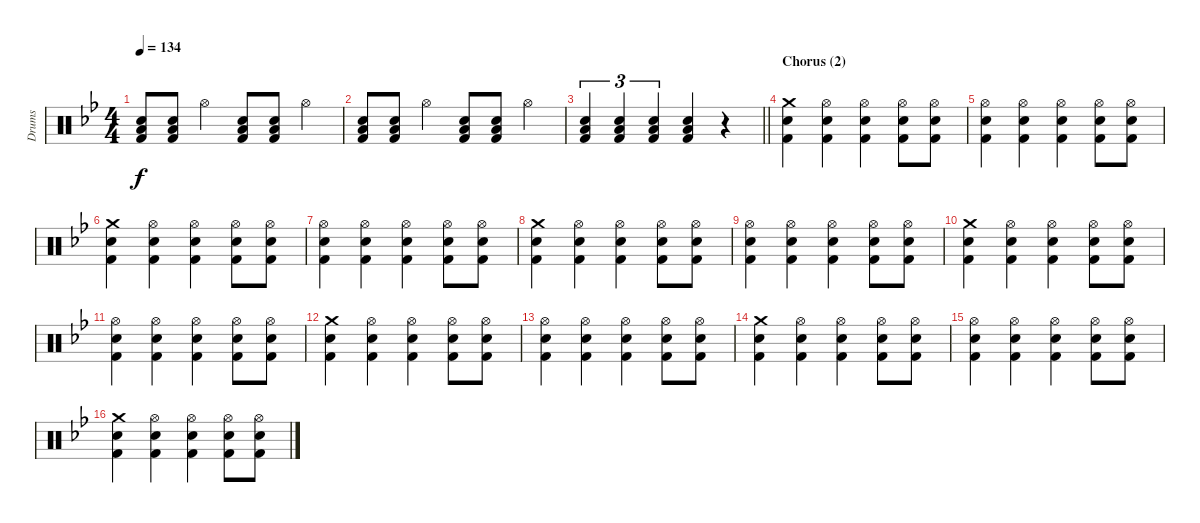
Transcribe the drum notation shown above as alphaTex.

\track ("Drums" "Drums") {instrument percussion}
\staff {score}
\articulation defaults
\ts (4 4)
\tempo 134
\clef neutral
\ks gminor
("Electric Snare (hit)" "Low Floor Tom (hit)" "Kick (hit) 2").8{dy f} ("Electric Snare (hit)" "Low Floor Tom (hit)" "Kick (hit) 2").8 "Hi-Hat (open)".4 ("Electric Snare (hit)" "Low Floor Tom (hit)" "Kick (hit) 2").8 ("Electric Snare (hit)" "Low Floor Tom (hit)" "Kick (hit) 2").8 "Hi-Hat (open)".4 |
("Electric Snare (hit)" "Low Floor Tom (hit)" "Kick (hit) 2").8 ("Electric Snare (hit)" "Low Floor Tom (hit)" "Kick (hit) 2").8 "Hi-Hat (open)".4 ("Electric Snare (hit)" "Low Floor Tom (hit)" "Kick (hit) 2").8 ("Electric Snare (hit)" "Low Floor Tom (hit)" "Kick (hit) 2").8 "Hi-Hat (open)".4 |
\barLineRight lightlight
("Electric Snare (hit)" "Low Floor Tom (hit)" "Kick (hit) 2").4{tu (3 2)} ("Electric Snare (hit)" "Low Floor Tom (hit)" "Kick (hit) 2").4{tu (3 2)} ("Electric Snare (hit)" "Low Floor Tom (hit)" "Kick (hit) 2").4{tu (3 2)} ("Electric Snare (hit)" "Low Floor Tom (hit)" "Kick (hit) 2").4 r.4 |
\section ("" "Chorus (2)")
("Crash medium (hit)" "Electric Snare (hit)" "Kick (hit) 2").4 ("Hi-Hat (open)" "Electric Snare (hit)" "Kick (hit) 2").4 ("Hi-Hat (open)" "Electric Snare (hit)" "Kick (hit) 2").4 ("Hi-Hat (open)" "Electric Snare (hit)" "Kick (hit) 2").8 ("Hi-Hat (open)" "Electric Snare (hit)" "Kick (hit) 2").8 |
("Hi-Hat (open)" "Electric Snare (hit)" "Kick (hit) 2").4 ("Hi-Hat (open)" "Electric Snare (hit)" "Kick (hit) 2").4 ("Hi-Hat (open)" "Electric Snare (hit)" "Kick (hit) 2").4 ("Hi-Hat (open)" "Electric Snare (hit)" "Kick (hit) 2").8 ("Hi-Hat (open)" "Electric Snare (hit)" "Kick (hit) 2").8 |
("Crash medium (hit)" "Electric Snare (hit)" "Kick (hit) 2").4 ("Hi-Hat (open)" "Electric Snare (hit)" "Kick (hit) 2").4 ("Hi-Hat (open)" "Electric Snare (hit)" "Kick (hit) 2").4 ("Hi-Hat (open)" "Electric Snare (hit)" "Kick (hit) 2").8 ("Hi-Hat (open)" "Electric Snare (hit)" "Kick (hit) 2").8 |
("Hi-Hat (open)" "Electric Snare (hit)" "Kick (hit) 2").4 ("Hi-Hat (open)" "Electric Snare (hit)" "Kick (hit) 2").4 ("Hi-Hat (open)" "Electric Snare (hit)" "Kick (hit) 2").4 ("Hi-Hat (open)" "Electric Snare (hit)" "Kick (hit) 2").8 ("Hi-Hat (open)" "Electric Snare (hit)" "Kick (hit) 2").8 |
("Crash medium (hit)" "Electric Snare (hit)" "Kick (hit) 2").4 ("Hi-Hat (open)" "Electric Snare (hit)" "Kick (hit) 2").4 ("Hi-Hat (open)" "Electric Snare (hit)" "Kick (hit) 2").4 ("Hi-Hat (open)" "Electric Snare (hit)" "Kick (hit) 2").8 ("Hi-Hat (open)" "Electric Snare (hit)" "Kick (hit) 2").8 |
("Hi-Hat (open)" "Electric Snare (hit)" "Kick (hit) 2").4 ("Hi-Hat (open)" "Electric Snare (hit)" "Kick (hit) 2").4 ("Hi-Hat (open)" "Electric Snare (hit)" "Kick (hit) 2").4 ("Hi-Hat (open)" "Electric Snare (hit)" "Kick (hit) 2").8 ("Hi-Hat (open)" "Electric Snare (hit)" "Kick (hit) 2").8 |
("Crash medium (hit)" "Electric Snare (hit)" "Kick (hit) 2").4 ("Hi-Hat (open)" "Electric Snare (hit)" "Kick (hit) 2").4 ("Hi-Hat (open)" "Electric Snare (hit)" "Kick (hit) 2").4 ("Hi-Hat (open)" "Electric Snare (hit)" "Kick (hit) 2").8 ("Hi-Hat (open)" "Electric Snare (hit)" "Kick (hit) 2").8 |
("Hi-Hat (open)" "Electric Snare (hit)" "Kick (hit) 2").4 ("Hi-Hat (open)" "Electric Snare (hit)" "Kick (hit) 2").4 ("Hi-Hat (open)" "Electric Snare (hit)" "Kick (hit) 2").4 ("Hi-Hat (open)" "Electric Snare (hit)" "Kick (hit) 2").8 ("Hi-Hat (open)" "Electric Snare (hit)" "Kick (hit) 2").8 |
("Crash medium (hit)" "Electric Snare (hit)" "Kick (hit) 2").4 ("Hi-Hat (open)" "Electric Snare (hit)" "Kick (hit) 2").4 ("Hi-Hat (open)" "Electric Snare (hit)" "Kick (hit) 2").4 ("Hi-Hat (open)" "Electric Snare (hit)" "Kick (hit) 2").8 ("Hi-Hat (open)" "Electric Snare (hit)" "Kick (hit) 2").8 |
("Hi-Hat (open)" "Electric Snare (hit)" "Kick (hit) 2").4 ("Hi-Hat (open)" "Electric Snare (hit)" "Kick (hit) 2").4 ("Hi-Hat (open)" "Electric Snare (hit)" "Kick (hit) 2").4 ("Hi-Hat (open)" "Electric Snare (hit)" "Kick (hit) 2").8 ("Hi-Hat (open)" "Electric Snare (hit)" "Kick (hit) 2").8 |
("Crash medium (hit)" "Electric Snare (hit)" "Kick (hit) 2").4 ("Hi-Hat (open)" "Electric Snare (hit)" "Kick (hit) 2").4 ("Hi-Hat (open)" "Electric Snare (hit)" "Kick (hit) 2").4 ("Hi-Hat (open)" "Electric Snare (hit)" "Kick (hit) 2").8 ("Hi-Hat (open)" "Electric Snare (hit)" "Kick (hit) 2").8 |
("Hi-Hat (open)" "Electric Snare (hit)" "Kick (hit) 2").4 ("Hi-Hat (open)" "Electric Snare (hit)" "Kick (hit) 2").4 ("Hi-Hat (open)" "Electric Snare (hit)" "Kick (hit) 2").4 ("Hi-Hat (open)" "Electric Snare (hit)" "Kick (hit) 2").8 ("Hi-Hat (open)" "Electric Snare (hit)" "Kick (hit) 2").8 |
("Crash medium (hit)" "Electric Snare (hit)" "Kick (hit) 2").4 ("Hi-Hat (open)" "Electric Snare (hit)" "Kick (hit) 2").4 ("Hi-Hat (open)" "Electric Snare (hit)" "Kick (hit) 2").4 ("Hi-Hat (open)" "Electric Snare (hit)" "Kick (hit) 2").8 ("Hi-Hat (open)" "Electric Snare (hit)" "Kick (hit) 2").8
